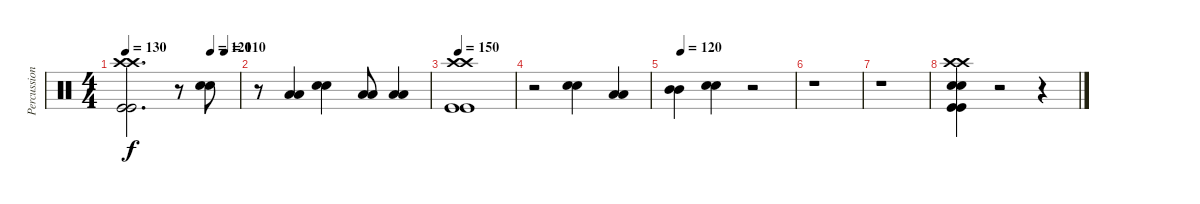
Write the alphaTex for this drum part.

\track ("Percussions" "Percussion") {instrument percussion}
\staff {score}
\articulation defaults
\ts (4 4)
\tempo 130
\tempo (120 0.75)
\tempo (110 0.875)
\clef neutral
\ks c
("Crash high (hit)" "Crash high (hit)" "Kick (hit)" "Kick (hit)").2{d dy f} r.8 ("Snare (hit) 2" "Snare (hit) 2").8 |
r.8 ("Low Tom (hit)" "Low Tom (hit)").4 ("Snare (hit) 2" "Snare (hit) 2").4 ("Low Tom (hit)" "Low Tom (hit)").8 ("Low Tom (hit)" "Low Tom (hit)").4 |
\tempo 150
("Crash high (hit)" "Crash high (hit)" "Kick (hit)" "Kick (hit)").1 |
r.2 ("Snare (hit) 2" "Snare (hit) 2").4 ("Low Tom (hit)" "Low Tom (hit)").4 |
\tempo (120 0.0625)
("Mid Tom (hit)" "Mid Tom (hit)").4 ("Snare (hit) 2" "Snare (hit) 2").4 r.2 |
r.1 |
r.1 |
("Crash high (hit)" "Snare (hit) 2" "Snare (hit) 2" "Crash high (hit)" "Kick (hit)" "Kick (hit)").4 r.2 r.4
